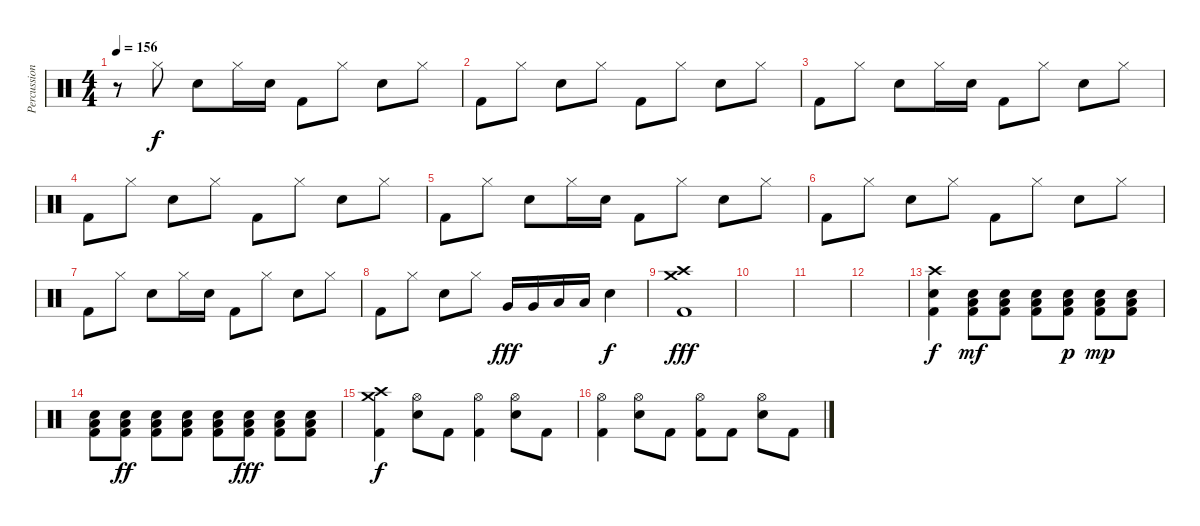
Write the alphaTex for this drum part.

\track ("Percussion" "Percussion") {instrument percussion}
\staff {score}
\articulation defaults
\ts (4 4)
\tempo 156
\clef neutral
\ks c
r.8{dy f} "Hi-Hat (closed)".8 "Electric Snare (hit)".8 "Hi-Hat (closed)".16 "Electric Snare (hit)".16 "Kick (hit) 2".8 "Hi-Hat (closed)".8 "Electric Snare (hit)".8 "Hi-Hat (closed)".8 |
"Kick (hit) 2".8 "Hi-Hat (closed)".8 "Electric Snare (hit)".8 "Hi-Hat (closed)".8 "Kick (hit) 2".8 "Hi-Hat (closed)".8 "Electric Snare (hit)".8 "Hi-Hat (closed)".8 |
"Kick (hit) 2".8 "Hi-Hat (closed)".8 "Electric Snare (hit)".8 "Hi-Hat (closed)".16 "Electric Snare (hit)".16 "Kick (hit) 2".8 "Hi-Hat (closed)".8 "Electric Snare (hit)".8 "Hi-Hat (closed)".8 |
"Kick (hit) 2".8 "Hi-Hat (closed)".8 "Electric Snare (hit)".8 "Hi-Hat (closed)".8 "Kick (hit) 2".8 "Hi-Hat (closed)".8 "Electric Snare (hit)".8 "Hi-Hat (closed)".8 |
"Kick (hit) 2".8 "Hi-Hat (closed)".8 "Electric Snare (hit)".8 "Hi-Hat (closed)".16 "Electric Snare (hit)".16 "Kick (hit) 2".8 "Hi-Hat (closed)".8 "Electric Snare (hit)".8 "Hi-Hat (closed)".8 |
"Kick (hit) 2".8 "Hi-Hat (closed)".8 "Electric Snare (hit)".8 "Hi-Hat (closed)".8 "Kick (hit) 2".8 "Hi-Hat (closed)".8 "Electric Snare (hit)".8 "Hi-Hat (closed)".8 |
"Kick (hit) 2".8 "Hi-Hat (closed)".8 "Electric Snare (hit)".8 "Hi-Hat (closed)".16 "Electric Snare (hit)".16 "Kick (hit) 2".8 "Hi-Hat (closed)".8 "Electric Snare (hit)".8 "Hi-Hat (closed)".8 |
"Kick (hit) 2".8 "Hi-Hat (closed)".8 "Electric Snare (hit)".8 "Hi-Hat (closed)".8 "Very Low Tom (hit)".16{dy fff} "Very Low Tom (hit)".16 "Low Floor Tom (hit)".16 "Low Floor Tom (hit)".16 "Electric Snare (hit)".4{dy f} |
("Crash high (hit)" "Crash medium (hit)" "Kick (hit) 2").1{dy fff} |
|
|
|
("Crash high (hit)" "Kick (hit) 2" "Electric Snare (hit)").4{dy f} ("Kick (hit) 2" "Electric Snare (hit)" "Low Floor Tom (hit)").8{dy mf} ("Kick (hit) 2" "Electric Snare (hit)" "Low Floor Tom (hit)").8 ("Kick (hit) 2" "Electric Snare (hit)" "Low Floor Tom (hit)").8 ("Kick (hit) 2" "Electric Snare (hit)" "Low Floor Tom (hit)").8{dy p} ("Kick (hit) 2" "Electric Snare (hit)" "Low Floor Tom (hit)").8{dy mp} ("Kick (hit) 2" "Electric Snare (hit)" "Low Floor Tom (hit)").8 |
("Kick (hit) 2" "Electric Snare (hit)" "Low Floor Tom (hit)").8 ("Kick (hit) 2" "Electric Snare (hit)" "Low Floor Tom (hit)").8{dy ff} ("Kick (hit) 2" "Electric Snare (hit)" "Low Floor Tom (hit)").8 ("Kick (hit) 2" "Electric Snare (hit)" "Low Floor Tom (hit)").8 ("Kick (hit) 2" "Electric Snare (hit)" "Low Floor Tom (hit)").8 ("Kick (hit) 2" "Electric Snare (hit)" "Low Floor Tom (hit)").8{dy fff} ("Kick (hit) 2" "Electric Snare (hit)" "Low Floor Tom (hit)").8 ("Kick (hit) 2" "Electric Snare (hit)" "Low Floor Tom (hit)").8 |
("Crash medium (hit)" "Crash high (hit)" "Kick (hit) 2").4{dy f} ("Hi-Hat (open)" "Electric Snare (hit)").8 "Kick (hit) 2".8 ("Hi-Hat (open)" "Kick (hit) 2").4 ("Hi-Hat (open)" "Electric Snare (hit)").8 "Kick (hit) 2".8 |
("Hi-Hat (open)" "Kick (hit) 2").4 ("Hi-Hat (open)" "Electric Snare (hit)").8 "Kick (hit) 2".8 ("Hi-Hat (open)" "Kick (hit) 2").8 "Kick (hit) 2".8 ("Hi-Hat (open)" "Electric Snare (hit)").8 "Kick (hit) 2".8
